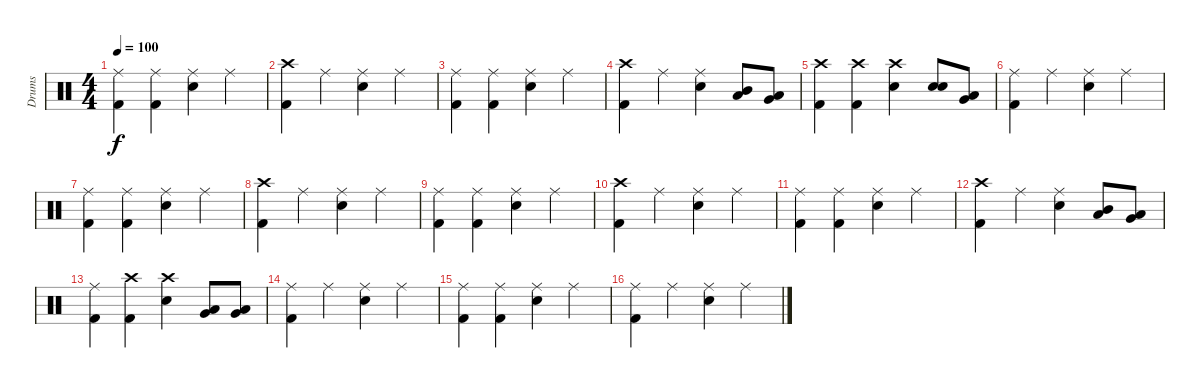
\track ("Drums" "Drums") {instrument percussion}
\staff {score}
\articulation defaults
\ts (4 4)
\tempo 100
\clef neutral
\ks c
("Ride (middle)" "Kick (hit) 2").4{dy f} ("Ride (middle)" "Kick (hit) 2").4 ("Ride (middle)" "Snare (hit) 2").4 "Ride (middle)".4 |
("Crash high (hit)" "Kick (hit) 2").4 "Ride (middle)".4 ("Ride (middle)" "Snare (hit) 2").4 "Ride (middle)".4 |
("Ride (middle)" "Kick (hit) 2").4 ("Ride (middle)" "Kick (hit) 2").4 ("Ride (middle)" "Snare (hit) 2").4 "Ride (middle)".4 |
("Crash high (hit)" "Kick (hit) 2").4 "Ride (middle)".4 ("Ride (middle)" "Snare (hit) 2").4 ("Low Tom (hit)" "Mid Tom (hit)").8 ("Very Low Tom (hit)" "Low Tom (hit)").8 |
("Crash high (hit)" "Kick (hit) 2").4 ("Crash high (hit)" "Kick (hit) 2").4 ("Crash high (hit)" "Snare (hit) 2").4 ("Snare (hit) 2" "Electric Snare (hit)").8 ("Very Low Tom (hit)" "Low Tom (hit)").8 |
("Ride (middle)" "Kick (hit) 2").4 "Ride (middle)".4 ("Ride (middle)" "Snare (hit) 2").4 "Ride (middle)".4 |
("Ride (middle)" "Kick (hit) 2").4 ("Ride (middle)" "Kick (hit) 2").4 ("Ride (middle)" "Snare (hit) 2").4 "Ride (middle)".4 |
("Crash high (hit)" "Kick (hit) 2").4 "Ride (middle)".4 ("Ride (middle)" "Snare (hit) 2").4 "Ride (middle)".4 |
("Ride (middle)" "Kick (hit) 2").4 ("Ride (middle)" "Kick (hit) 2").4 ("Ride (middle)" "Snare (hit) 2").4 "Ride (middle)".4 |
("Crash high (hit)" "Kick (hit) 2").4 "Ride (middle)".4 ("Ride (middle)" "Snare (hit) 2").4 "Ride (middle)".4 |
("Ride (middle)" "Kick (hit) 2").4 ("Ride (middle)" "Kick (hit) 2").4 ("Ride (middle)" "Snare (hit) 2").4 "Ride (middle)".4 |
("Crash high (hit)" "Kick (hit) 2").4 "Ride (middle)".4 ("Ride (middle)" "Snare (hit) 2").4 ("Low Tom (hit)" "Mid Tom (hit)").8 ("Very Low Tom (hit)" "Low Tom (hit)").8 |
("Ride (middle)" "Kick (hit) 2").4 ("Crash high (hit)" "Kick (hit) 2").4 ("Crash high (hit)" "Snare (hit) 2").4 ("Very Low Tom (hit)" "Low Tom (hit)").8 ("Very Low Tom (hit)" "Low Tom (hit)").8 |
("Ride (middle)" "Kick (hit) 2").4 "Ride (middle)".4 ("Ride (middle)" "Snare (hit) 2").4 "Ride (middle)".4 |
("Ride (middle)" "Kick (hit) 2").4 ("Ride (middle)" "Kick (hit) 2").4 ("Ride (middle)" "Snare (hit) 2").4 "Ride (middle)".4 |
("Ride (middle)" "Kick (hit) 2").4 "Ride (middle)".4 ("Ride (middle)" "Snare (hit) 2").4 "Ride (middle)".4
